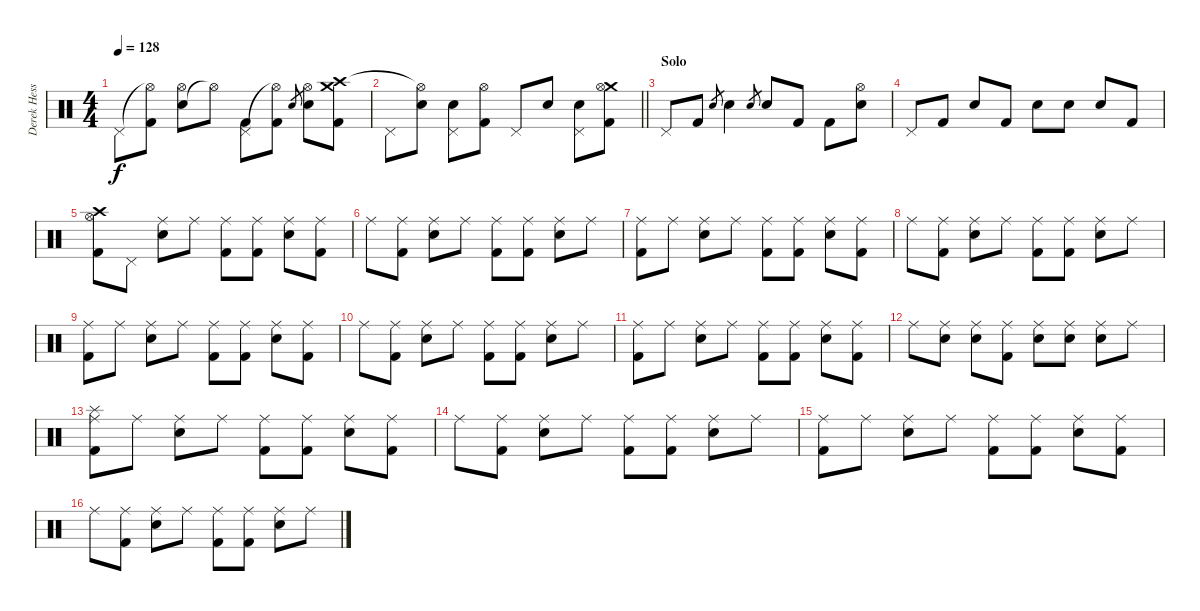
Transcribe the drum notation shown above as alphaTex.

\track ("Derek Hess (Drums and Percussion)" "Derek Hess") {instrument percussion}
\staff {score}
\articulation defaults
\ts (4 4)
\tempo 128
\clef neutral
\ks c "Pedal Hi-Hat (hit)".8{dy f}
("Hi-Hat (open)"{t} "Kick (hit) 2").8 ("Snare (hit) 2" "Hi-Hat (open)").8 "Hi-Hat (open)"{t}.8 ("Pedal Hi-Hat (hit)" "Kick (hit) 2").8 ("Hi-Hat (open)"{t} "Kick (hit) 2").8 "Snare (hit) 2".8{gr} ("Snare (hit) 2" "Hi-Hat (open)").8 ("Crash medium (hit)" "Crash high (hit)" "Kick (hit) 2").8 |
\barLineRight lightlight "Pedal Hi-Hat (hit)".8
("Snare (hit) 2" "Hi-Hat (open)"{t}).8 ("Snare (hit) 2" "Pedal Hi-Hat (hit)").8 ("Hi-Hat (open)" "Kick (hit) 2").8 "Pedal Hi-Hat (hit)".8 "Snare (hit) 2".8 ("Snare (hit) 2" "Pedal Hi-Hat (hit)").8 ("Crash medium (hit)" "Hi-Hat (open)" "Kick (hit) 2").8 |
\section ("" "Solo")
"Pedal Hi-Hat (hit)".8 "Kick (hit) 2".8 "Snare (hit) 2".8{gr} "Snare (hit) 2".4 "Snare (hit) 2".8{gr} "Snare (hit) 2".8 "Kick (hit) 2".8 "Kick (hit) 2".8 ("Snare (hit) 2" "Hi-Hat (open)").8 |
"Pedal Hi-Hat (hit)".8 "Kick (hit) 2".8 "Snare (hit) 2".8 "Kick (hit) 2".8 "Snare (hit) 2".8 "Snare (hit) 2".8 "Snare (hit) 2".8 "Kick (hit) 2".8 |
("Crash high (hit)" "Hi-Hat (open)" "Kick (hit) 2").8 "Pedal Hi-Hat (hit)".8 ("Ride (middle)" "Snare (hit) 2").8 "Ride (middle)".8 ("Ride (middle)" "Kick (hit) 2").8 ("Ride (middle)" "Kick (hit) 2").8 ("Ride (middle)" "Snare (hit) 2").8 ("Ride (middle)" "Kick (hit) 2").8 |
"Ride (middle)".8 ("Ride (middle)" "Kick (hit) 2").8 ("Ride (middle)" "Snare (hit) 2").8 "Ride (middle)".8 ("Ride (middle)" "Kick (hit) 2").8 ("Ride (middle)" "Kick (hit) 2").8 ("Ride (middle)" "Snare (hit) 2").8 "Ride (middle)".8 |
("Ride (middle)" "Kick (hit) 2").8 "Ride (middle)".8 ("Ride (middle)" "Snare (hit) 2").8 "Ride (middle)".8 ("Ride (middle)" "Kick (hit) 2").8 ("Ride (middle)" "Kick (hit) 2").8 ("Ride (middle)" "Snare (hit) 2").8 ("Ride (middle)" "Kick (hit) 2").8 |
"Ride (middle)".8 ("Ride (middle)" "Kick (hit) 2").8 ("Ride (middle)" "Snare (hit) 2").8 "Ride (middle)".8 ("Ride (middle)" "Kick (hit) 2").8 ("Ride (middle)" "Kick (hit) 2").8 ("Ride (middle)" "Snare (hit) 2").8 "Ride (middle)".8 |
("Ride (middle)" "Kick (hit) 2").8 "Ride (middle)".8 ("Ride (middle)" "Snare (hit) 2").8 "Ride (middle)".8 ("Ride (middle)" "Kick (hit) 2").8 ("Ride (middle)" "Kick (hit) 2").8 ("Ride (middle)" "Snare (hit) 2").8 ("Ride (middle)" "Kick (hit) 2").8 |
"Ride (middle)".8 ("Ride (middle)" "Kick (hit) 2").8 ("Ride (middle)" "Snare (hit) 2").8 "Ride (middle)".8 ("Ride (middle)" "Kick (hit) 2").8 ("Ride (middle)" "Kick (hit) 2").8 ("Ride (middle)" "Snare (hit) 2").8 "Ride (middle)".8 |
("Ride (middle)" "Kick (hit) 2").8 "Ride (middle)".8 ("Ride (middle)" "Snare (hit) 2").8 "Ride (middle)".8 ("Ride (middle)" "Kick (hit) 2").8 ("Ride (middle)" "Kick (hit) 2").8 ("Ride (middle)" "Snare (hit) 2").8 ("Ride (middle)" "Kick (hit) 2").8 |
"Ride (middle)".8 ("Ride (middle)" "Snare (hit) 2").8 ("Ride (middle)" "Snare (hit) 2").8 ("Ride (middle)" "Kick (hit) 2").8 ("Ride (middle)" "Snare (hit) 2").8 ("Ride (middle)" "Snare (hit) 2").8 ("Ride (middle)" "Snare (hit) 2").8 "Ride (middle)".8 |
("Ride (middle)" "Splash (hit)" "Kick (hit) 2").8 "Ride (middle)".8 ("Ride (middle)" "Snare (hit) 2").8 "Ride (middle)".8 ("Ride (middle)" "Kick (hit) 2").8 ("Ride (middle)" "Kick (hit) 2").8 ("Ride (middle)" "Snare (hit) 2").8 ("Ride (middle)" "Kick (hit) 2").8 |
"Ride (middle)".8 ("Ride (middle)" "Kick (hit) 2").8 ("Ride (middle)" "Snare (hit) 2").8 "Ride (middle)".8 ("Ride (middle)" "Kick (hit) 2").8 ("Ride (middle)" "Kick (hit) 2").8 ("Ride (middle)" "Snare (hit) 2").8 "Ride (middle)".8 |
("Ride (middle)" "Kick (hit) 2").8 "Ride (middle)".8 ("Ride (middle)" "Snare (hit) 2").8 "Ride (middle)".8 ("Ride (middle)" "Kick (hit) 2").8 ("Ride (middle)" "Kick (hit) 2").8 ("Ride (middle)" "Snare (hit) 2").8 ("Ride (middle)" "Kick (hit) 2").8 |
"Ride (middle)".8 ("Ride (middle)" "Kick (hit) 2").8 ("Ride (middle)" "Snare (hit) 2").8 "Ride (middle)".8 ("Ride (middle)" "Kick (hit) 2").8 ("Ride (middle)" "Kick (hit) 2").8 ("Ride (middle)" "Snare (hit) 2").8 "Ride (middle)".8
